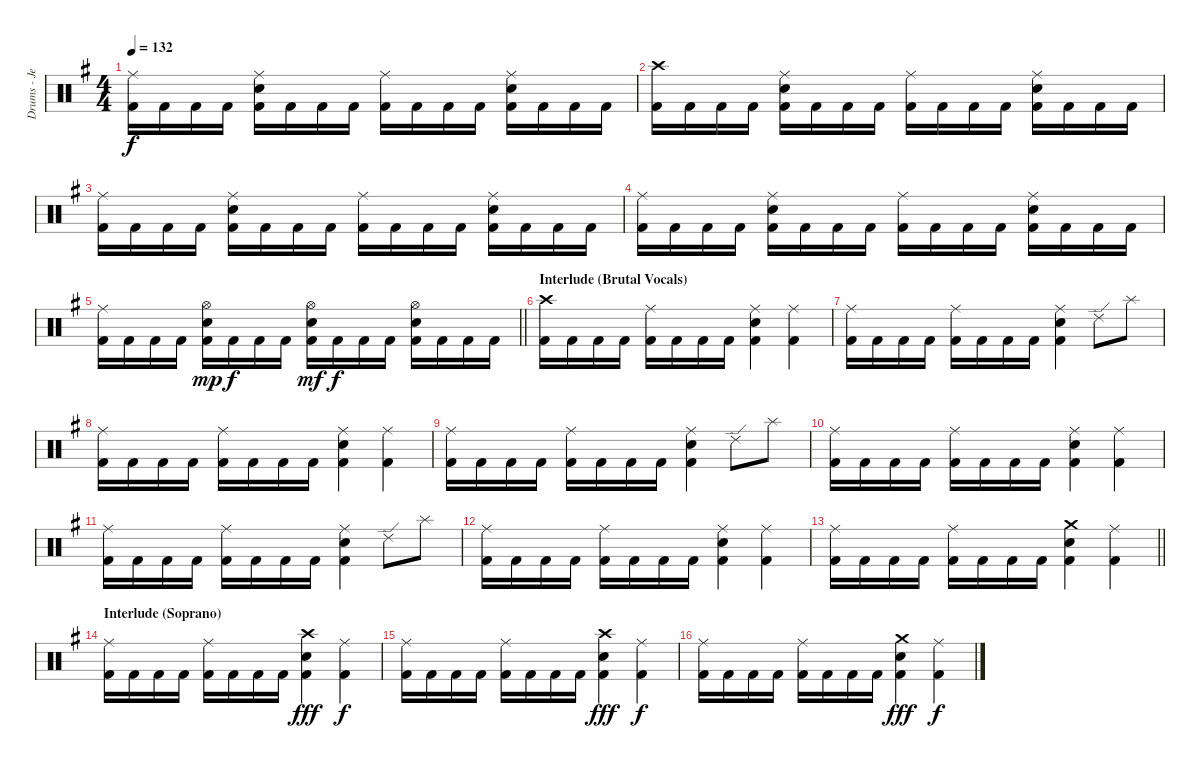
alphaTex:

\track ("Drums - Jeroen Simons " "Drums - Je") {instrument percussion}
\staff {score}
\articulation defaults
\ts (4 4)
\tempo 132
\clef neutral
\ks g
("Ride (middle)" "Kick (hit) 2").16{dy f} "Kick (hit) 2".16 "Kick (hit) 2".16 "Kick (hit) 2".16 ("Ride (middle)" "Electric Snare (hit)" "Kick (hit) 2").16 "Kick (hit) 2".16 "Kick (hit) 2".16 "Kick (hit) 2".16 ("Ride (middle)" "Kick (hit) 2").16 "Kick (hit) 2".16 "Kick (hit) 2".16 "Kick (hit) 2".16 ("Ride (middle)" "Electric Snare (hit)" "Kick (hit) 2").16 "Kick (hit) 2".16 "Kick (hit) 2".16 "Kick (hit) 2".16 |
("Crash high (hit)" "Kick (hit) 2").16 "Kick (hit) 2".16 "Kick (hit) 2".16 "Kick (hit) 2".16 ("Ride (middle)" "Electric Snare (hit)" "Kick (hit) 2").16 "Kick (hit) 2".16 "Kick (hit) 2".16 "Kick (hit) 2".16 ("Ride (middle)" "Kick (hit) 2").16 "Kick (hit) 2".16 "Kick (hit) 2".16 "Kick (hit) 2".16 ("Ride (middle)" "Electric Snare (hit)" "Kick (hit) 2").16 "Kick (hit) 2".16 "Kick (hit) 2".16 "Kick (hit) 2".16 |
("Ride (middle)" "Kick (hit) 2").16 "Kick (hit) 2".16 "Kick (hit) 2".16 "Kick (hit) 2".16 ("Ride (middle)" "Electric Snare (hit)" "Kick (hit) 2").16 "Kick (hit) 2".16 "Kick (hit) 2".16 "Kick (hit) 2".16 ("Ride (middle)" "Kick (hit) 2").16 "Kick (hit) 2".16 "Kick (hit) 2".16 "Kick (hit) 2".16 ("Ride (middle)" "Electric Snare (hit)" "Kick (hit) 2").16 "Kick (hit) 2".16 "Kick (hit) 2".16 "Kick (hit) 2".16 |
("Ride (middle)" "Kick (hit) 2").16 "Kick (hit) 2".16 "Kick (hit) 2".16 "Kick (hit) 2".16 ("Ride (middle)" "Electric Snare (hit)" "Kick (hit) 2").16 "Kick (hit) 2".16 "Kick (hit) 2".16 "Kick (hit) 2".16 ("Ride (middle)" "Kick (hit) 2").16 "Kick (hit) 2".16 "Kick (hit) 2".16 "Kick (hit) 2".16 ("Ride (middle)" "Electric Snare (hit)" "Kick (hit) 2").16 "Kick (hit) 2".16 "Kick (hit) 2".16 "Kick (hit) 2".16 |
\barLineRight lightlight
("Ride (middle)" "Kick (hit) 2").16 "Kick (hit) 2".16 "Kick (hit) 2".16 "Kick (hit) 2".16 ("Hi-Hat (open)" "Electric Snare (hit)" "Kick (hit) 2").16{dy mp} "Kick (hit) 2".16{dy f} "Kick (hit) 2".16 "Kick (hit) 2".16 ("Hi-Hat (open)" "Electric Snare (hit)" "Kick (hit) 2").16{dy mf} "Kick (hit) 2".16{dy f} "Kick (hit) 2".16 "Kick (hit) 2".16 ("Hi-Hat (open)" "Electric Snare (hit)" "Kick (hit) 2").16 "Kick (hit) 2".16 "Kick (hit) 2".16 "Kick (hit) 2".16 |
\section ("" "Interlude (Brutal Vocals)")
("Crash high (hit)" "Kick (hit) 2").16 "Kick (hit) 2".16 "Kick (hit) 2".16 "Kick (hit) 2".16 ("Ride (middle)" "Kick (hit) 2").16 "Kick (hit) 2".16 "Kick (hit) 2".16 "Kick (hit) 2".16 ("Ride (middle)" "Electric Snare (hit)" "Kick (hit) 2").4 ("Ride (middle)" "Kick (hit) 2").4 |
("Ride (middle)" "Kick (hit) 2").16 "Kick (hit) 2".16 "Kick (hit) 2".16 "Kick (hit) 2".16 ("Ride (middle)" "Kick (hit) 2").16 "Kick (hit) 2".16 "Kick (hit) 2".16 "Kick (hit) 2".16 ("Ride (middle)" "Electric Snare (hit)" "Kick (hit) 2").4 "Ride (edge) 2".8 "Splash (hit)".8 |
("Ride (middle)" "Kick (hit) 2").16 "Kick (hit) 2".16 "Kick (hit) 2".16 "Kick (hit) 2".16 ("Ride (middle)" "Kick (hit) 2").16 "Kick (hit) 2".16 "Kick (hit) 2".16 "Kick (hit) 2".16 ("Ride (middle)" "Electric Snare (hit)" "Kick (hit) 2").4 ("Ride (middle)" "Kick (hit) 2").4 |
("Ride (middle)" "Kick (hit) 2").16 "Kick (hit) 2".16 "Kick (hit) 2".16 "Kick (hit) 2".16 ("Ride (middle)" "Kick (hit) 2").16 "Kick (hit) 2".16 "Kick (hit) 2".16 "Kick (hit) 2".16 ("Ride (middle)" "Electric Snare (hit)" "Kick (hit) 2").4 "Ride (edge) 2".8 "Splash (hit)".8 |
("Ride (middle)" "Kick (hit) 2").16 "Kick (hit) 2".16 "Kick (hit) 2".16 "Kick (hit) 2".16 ("Ride (middle)" "Kick (hit) 2").16 "Kick (hit) 2".16 "Kick (hit) 2".16 "Kick (hit) 2".16 ("Ride (middle)" "Electric Snare (hit)" "Kick (hit) 2").4 ("Ride (middle)" "Kick (hit) 2").4 |
("Ride (middle)" "Kick (hit) 2").16 "Kick (hit) 2".16 "Kick (hit) 2".16 "Kick (hit) 2".16 ("Ride (middle)" "Kick (hit) 2").16 "Kick (hit) 2".16 "Kick (hit) 2".16 "Kick (hit) 2".16 ("Ride (middle)" "Electric Snare (hit)" "Kick (hit) 2").4 "Ride (edge) 2".8 "Splash (hit)".8 |
("Ride (middle)" "Kick (hit) 2").16 "Kick (hit) 2".16 "Kick (hit) 2".16 "Kick (hit) 2".16 ("Ride (middle)" "Kick (hit) 2").16 "Kick (hit) 2".16 "Kick (hit) 2".16 "Kick (hit) 2".16 ("Ride (middle)" "Electric Snare (hit)" "Kick (hit) 2").4 ("Ride (middle)" "Kick (hit) 2").4 |
\barLineRight lightlight
("Ride (middle)" "Kick (hit) 2").16 "Kick (hit) 2".16 "Kick (hit) 2".16 "Kick (hit) 2".16 ("Ride (middle)" "Kick (hit) 2").16 "Kick (hit) 2".16 "Kick (hit) 2".16 "Kick (hit) 2".16 ("Crash medium (hit)" "Electric Snare (hit)" "Kick (hit) 2").4 ("Ride (middle)" "Kick (hit) 2").4 |
\section ("" "Interlude (Soprano)")
("Ride (middle)" "Kick (hit) 2").16 "Kick (hit) 2".16 "Kick (hit) 2".16 "Kick (hit) 2".16 ("Ride (middle)" "Kick (hit) 2").16 "Kick (hit) 2".16 "Kick (hit) 2".16 "Kick (hit) 2".16 ("Crash high (hit)" "Electric Snare (hit)" "Kick (hit) 2").4{dy fff} ("Ride (middle)" "Kick (hit) 2").4{dy f} |
("Ride (middle)" "Kick (hit) 2").16 "Kick (hit) 2".16 "Kick (hit) 2".16 "Kick (hit) 2".16 ("Ride (middle)" "Kick (hit) 2").16 "Kick (hit) 2".16 "Kick (hit) 2".16 "Kick (hit) 2".16 ("Crash high (hit)" "Electric Snare (hit)" "Kick (hit) 2").4{dy fff} ("Ride (middle)" "Kick (hit) 2").4{dy f} |
("Ride (middle)" "Kick (hit) 2").16 "Kick (hit) 2".16 "Kick (hit) 2".16 "Kick (hit) 2".16 ("Ride (middle)" "Kick (hit) 2").16 "Kick (hit) 2".16 "Kick (hit) 2".16 "Kick (hit) 2".16 ("Crash medium (hit)" "Electric Snare (hit)" "Kick (hit) 2").4{dy fff} ("Ride (middle)" "Kick (hit) 2").4{dy f}
